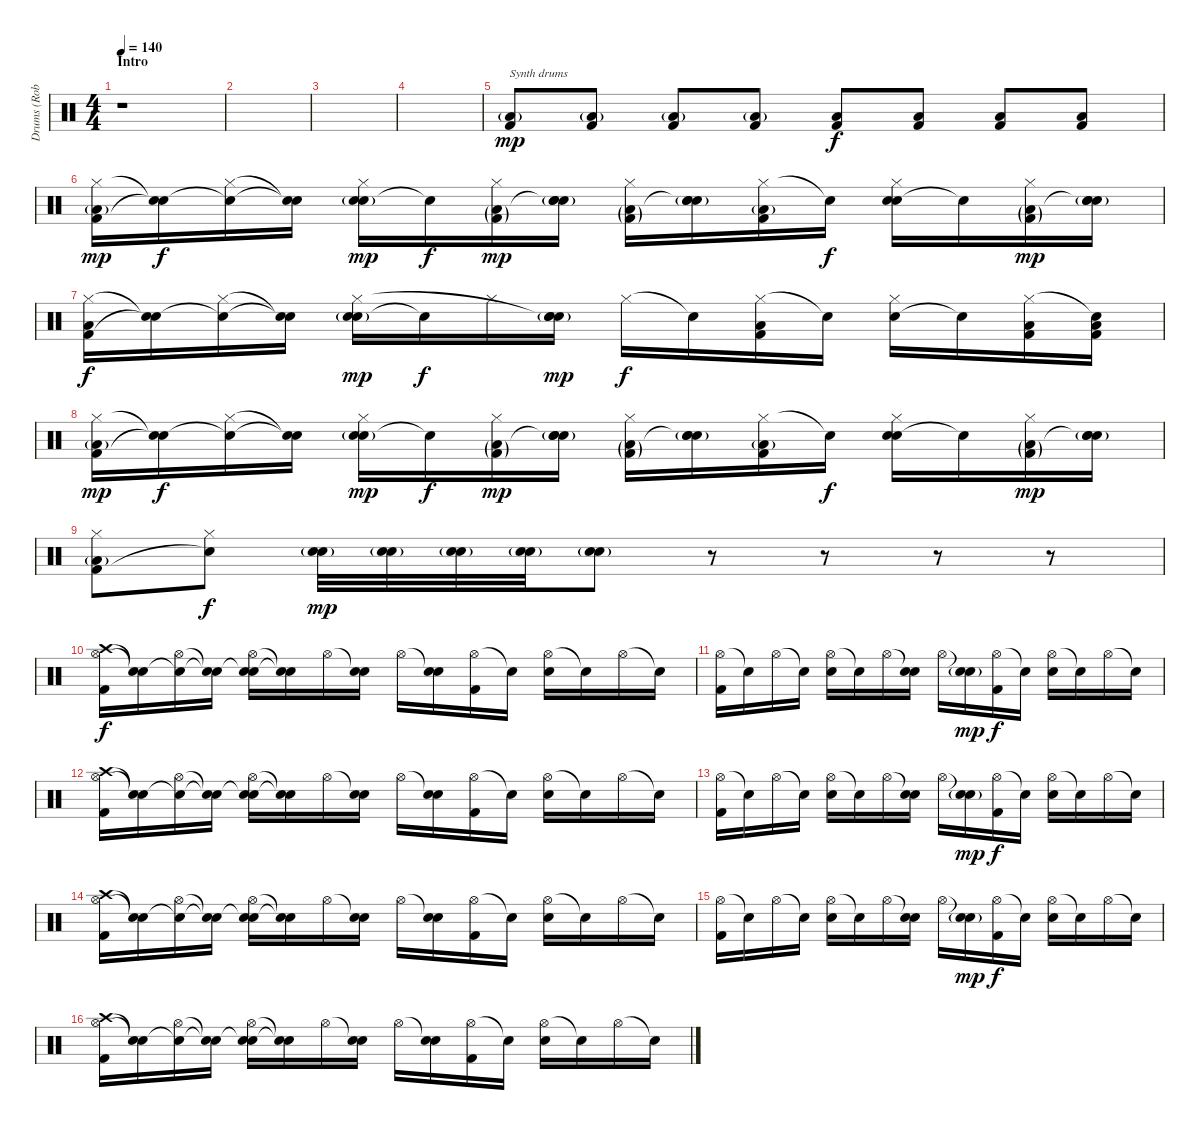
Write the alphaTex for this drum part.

\track ("Drums (Rob Bourdon)" "Drums (Rob") {instrument percussion}
\staff {score}
\articulation defaults
\ts (4 4)
\section ("" "Intro")
\tempo 140
\clef neutral
\ks c
r.1{dy mp} |
|
|
|
("Kick (hit) 2" "Low Floor Tom (hit)"{g}).8{txt "Synth drums" volume 5} ("Kick (hit) 2" "Low Floor Tom (hit)"{g}).8 ("Kick (hit) 2" "Low Floor Tom (hit)"{g}).8 ("Kick (hit) 2" "Low Floor Tom (hit)"{g}).8 ("Kick (hit) 2" "Low Floor Tom (hit)").8{dy f} ("Kick (hit) 2" "Low Floor Tom (hit)").8 ("Kick (hit) 2" "Low Floor Tom (hit)").8 ("Kick (hit) 2" "Low Floor Tom (hit)").8 |
("Hi-Hat (closed)" "Kick (hit) 2" "Low Floor Tom (hit)"{g}).16{dy mp volume 5} ("Snare (hit)"{t} "Snare (hit)"{t}).16{dy f} ("Hi-Hat (closed)" "Snare (hit)"{t}).16 ("Snare (hit)"{t} "Snare (hit)"{t}).16 ("Electric Snare (hit)" "Hi-Hat (closed)" "Snare (hit) 2"{g}).16{dy mp} "Snare (hit)"{t}.16{dy f} ("Hi-Hat (closed)" "Kick (hit) 2"{g} "Low Floor Tom (hit)"{g}).16{dy mp} ("Electric Snare (hit)"{g} "Snare (hit) 2" "Snare (hit)"{t}).16 ("Hi-Hat (closed)" "Kick (hit) 2"{g} "Low Floor Tom (hit)"{g}).16 ("Electric Snare (hit)"{g} "Snare (hit) 2" "Snare (hit)"{t}).16 ("Hi-Hat (closed)" "Kick (hit) 2" "Low Floor Tom (hit)"{g}).16 "Snare (hit)"{t}.16{dy f} ("Snare (hit) 2" "Electric Snare (hit)" "Hi-Hat (closed)").16 "Snare (hit)"{t}.16 ("Hi-Hat (closed)" "Kick (hit) 2"{g} "Low Floor Tom (hit)"{g}).16{dy mp} ("Electric Snare (hit)"{g} "Snare (hit) 2" "Snare (hit)"{t}).16 |
("Hi-Hat (closed)" "Kick (hit) 2" "Low Floor Tom (hit)").16{dy f volume 5} ("Snare (hit)"{t} "Snare (hit)"{t}).16 ("Hi-Hat (closed)" "Snare (hit)"{t}).16 ("Snare (hit)"{t} "Snare (hit)"{t}).16 ("Electric Snare (hit)" "Snare (hit) 2"{g} "Hi-Hat (closed)").16{dy mp} "Snare (hit)"{t}.16{dy f} "Hi-Hat (closed)".16 ("Electric Snare (hit)" "Snare (hit) 2"{g} "Snare (hit)"{t}).16{dy mp} "Hi-Hat (closed)".16{dy f} "Snare (hit)"{t}.16 ("Hi-Hat (closed)" "Kick (hit) 2" "Low Floor Tom (hit)").16 "Snare (hit)"{t}.16 ("Electric Snare (hit)" "Hi-Hat (closed)").16 "Snare (hit)"{t}.16 ("Hi-Hat (closed)" "Kick (hit) 2" "Low Floor Tom (hit)").16 ("Snare (hit)"{t} "Kick (hit) 2" "Low Floor Tom (hit)").16 |
("Hi-Hat (closed)" "Kick (hit) 2" "Low Floor Tom (hit)"{g}).16{dy mp volume 5} ("Snare (hit)"{t} "Snare (hit)"{t}).16{dy f} ("Hi-Hat (closed)" "Snare (hit)"{t}).16 ("Snare (hit)"{t} "Snare (hit)"{t}).16 ("Electric Snare (hit)" "Hi-Hat (closed)" "Snare (hit) 2"{g}).16{dy mp} "Snare (hit)"{t}.16{dy f} ("Hi-Hat (closed)" "Kick (hit) 2"{g} "Low Floor Tom (hit)"{g}).16{dy mp} ("Electric Snare (hit)"{g} "Snare (hit) 2" "Snare (hit)"{t}).16 ("Hi-Hat (closed)" "Kick (hit) 2"{g} "Low Floor Tom (hit)"{g}).16 ("Electric Snare (hit)"{g} "Snare (hit) 2" "Snare (hit)"{t}).16 ("Hi-Hat (closed)" "Kick (hit) 2" "Low Floor Tom (hit)"{g}).16 "Snare (hit)"{t}.16{dy f} ("Snare (hit) 2" "Electric Snare (hit)" "Hi-Hat (closed)").16 "Snare (hit)"{t}.16 ("Hi-Hat (closed)" "Kick (hit) 2"{g} "Low Floor Tom (hit)"{g}).16{dy mp} ("Electric Snare (hit)"{g} "Snare (hit) 2" "Snare (hit)"{t}).16 |
("Hi-Hat (closed)" "Kick (hit) 2" "Low Floor Tom (hit)"{g}).8{volume 5} ("Hi-Hat (closed)" "Snare (hit)"{t}).8{dy f} ("Snare (hit) 2"{g} "Electric Snare (hit)").32{dy mp} ("Snare (hit) 2"{g} "Electric Snare (hit)").32 ("Snare (hit) 2"{g} "Electric Snare (hit)").32 ("Snare (hit) 2"{g} "Electric Snare (hit)").32 ("Snare (hit) 2"{g} "Electric Snare (hit)").8 r.8 r.8 r.8 r.8 |
("Crash high (hit)" "Hi-Hat (open)" "Kick (hit) 2").16{dy f volume 14} ("Snare (hit)"{t} "Snare (hit)"{t}).16 ("Snare (hit)"{t} "Hi-Hat (open)").16 ("Snare (hit)"{t} "Snare (hit)"{t}).16 ("Snare (hit)"{t} "Hi-Hat (open)" "Electric Snare (hit)").16 ("Snare (hit)"{t} "Snare (hit)"{t}).16 "Hi-Hat (open)".16 ("Snare (hit)"{t} "Electric Snare (hit)").16 "Hi-Hat (open)".16 ("Snare (hit)"{t} "Electric Snare (hit)").16 ("Hi-Hat (open)" "Kick (hit) 2").16 "Snare (hit)"{t}.16 ("Hi-Hat (open)" "Electric Snare (hit)").16 "Snare (hit)"{t}.16 "Hi-Hat (open)".16 "Snare (hit)"{t}.16 |
("Hi-Hat (open)" "Kick (hit) 2").16 "Snare (hit)"{t}.16 "Hi-Hat (open)".16 "Snare (hit)"{t}.16 ("Hi-Hat (open)" "Electric Snare (hit)").16 "Snare (hit)"{t}.16 "Hi-Hat (open)".16 ("Snare (hit)"{t} "Electric Snare (hit)").16 "Hi-Hat (open)".16 ("Snare (hit)"{t} "Electric Snare (hit)"{g}).16{dy mp} ("Hi-Hat (open)" "Kick (hit) 2").16{dy f} "Snare (hit)"{t}.16 ("Hi-Hat (open)" "Electric Snare (hit)").16 "Snare (hit)"{t}.16 "Hi-Hat (open)".16 "Snare (hit)"{t}.16 |
("Crash high (hit)" "Hi-Hat (open)" "Kick (hit) 2").16{volume 14} ("Snare (hit)"{t} "Snare (hit)"{t}).16 ("Snare (hit)"{t} "Hi-Hat (open)").16 ("Snare (hit)"{t} "Snare (hit)"{t}).16 ("Snare (hit)"{t} "Hi-Hat (open)" "Electric Snare (hit)").16 ("Snare (hit)"{t} "Snare (hit)"{t}).16 "Hi-Hat (open)".16 ("Snare (hit)"{t} "Electric Snare (hit)").16 "Hi-Hat (open)".16 ("Snare (hit)"{t} "Electric Snare (hit)").16 ("Hi-Hat (open)" "Kick (hit) 2").16 "Snare (hit)"{t}.16 ("Hi-Hat (open)" "Electric Snare (hit)").16 "Snare (hit)"{t}.16 "Hi-Hat (open)".16 "Snare (hit)"{t}.16 |
("Hi-Hat (open)" "Kick (hit) 2").16 "Snare (hit)"{t}.16 "Hi-Hat (open)".16 "Snare (hit)"{t}.16 ("Hi-Hat (open)" "Electric Snare (hit)").16 "Snare (hit)"{t}.16 "Hi-Hat (open)".16 ("Snare (hit)"{t} "Electric Snare (hit)").16 "Hi-Hat (open)".16 ("Snare (hit)"{t} "Electric Snare (hit)"{g}).16{dy mp} ("Hi-Hat (open)" "Kick (hit) 2").16{dy f} "Snare (hit)"{t}.16 ("Hi-Hat (open)" "Electric Snare (hit)").16 "Snare (hit)"{t}.16 "Hi-Hat (open)".16 "Snare (hit)"{t}.16 |
("Crash high (hit)" "Hi-Hat (open)" "Kick (hit) 2").16{volume 14} ("Snare (hit)"{t} "Snare (hit)"{t}).16 ("Snare (hit)"{t} "Hi-Hat (open)").16 ("Snare (hit)"{t} "Snare (hit)"{t}).16 ("Snare (hit)"{t} "Hi-Hat (open)" "Electric Snare (hit)").16 ("Snare (hit)"{t} "Snare (hit)"{t}).16 "Hi-Hat (open)".16 ("Snare (hit)"{t} "Electric Snare (hit)").16 "Hi-Hat (open)".16 ("Snare (hit)"{t} "Electric Snare (hit)").16 ("Hi-Hat (open)" "Kick (hit) 2").16 "Snare (hit)"{t}.16 ("Hi-Hat (open)" "Electric Snare (hit)").16 "Snare (hit)"{t}.16 "Hi-Hat (open)".16 "Snare (hit)"{t}.16 |
("Hi-Hat (open)" "Kick (hit) 2").16 "Snare (hit)"{t}.16 "Hi-Hat (open)".16 "Snare (hit)"{t}.16 ("Hi-Hat (open)" "Electric Snare (hit)").16 "Snare (hit)"{t}.16 "Hi-Hat (open)".16 ("Snare (hit)"{t} "Electric Snare (hit)").16 "Hi-Hat (open)".16 ("Snare (hit)"{t} "Electric Snare (hit)"{g}).16{dy mp} ("Hi-Hat (open)" "Kick (hit) 2").16{dy f} "Snare (hit)"{t}.16 ("Hi-Hat (open)" "Electric Snare (hit)").16 "Snare (hit)"{t}.16 "Hi-Hat (open)".16 "Snare (hit)"{t}.16 |
("Crash high (hit)" "Hi-Hat (open)" "Kick (hit) 2").16{volume 14} ("Snare (hit)"{t} "Snare (hit)"{t}).16 ("Snare (hit)"{t} "Hi-Hat (open)").16 ("Snare (hit)"{t} "Snare (hit)"{t}).16 ("Snare (hit)"{t} "Hi-Hat (open)" "Electric Snare (hit)").16 ("Snare (hit)"{t} "Snare (hit)"{t}).16 "Hi-Hat (open)".16 ("Snare (hit)"{t} "Electric Snare (hit)").16 "Hi-Hat (open)".16 ("Snare (hit)"{t} "Electric Snare (hit)").16 ("Hi-Hat (open)" "Kick (hit) 2").16 "Snare (hit)"{t}.16 ("Hi-Hat (open)" "Electric Snare (hit)").16 "Snare (hit)"{t}.16 "Hi-Hat (open)".16 "Snare (hit)"{t}.16
